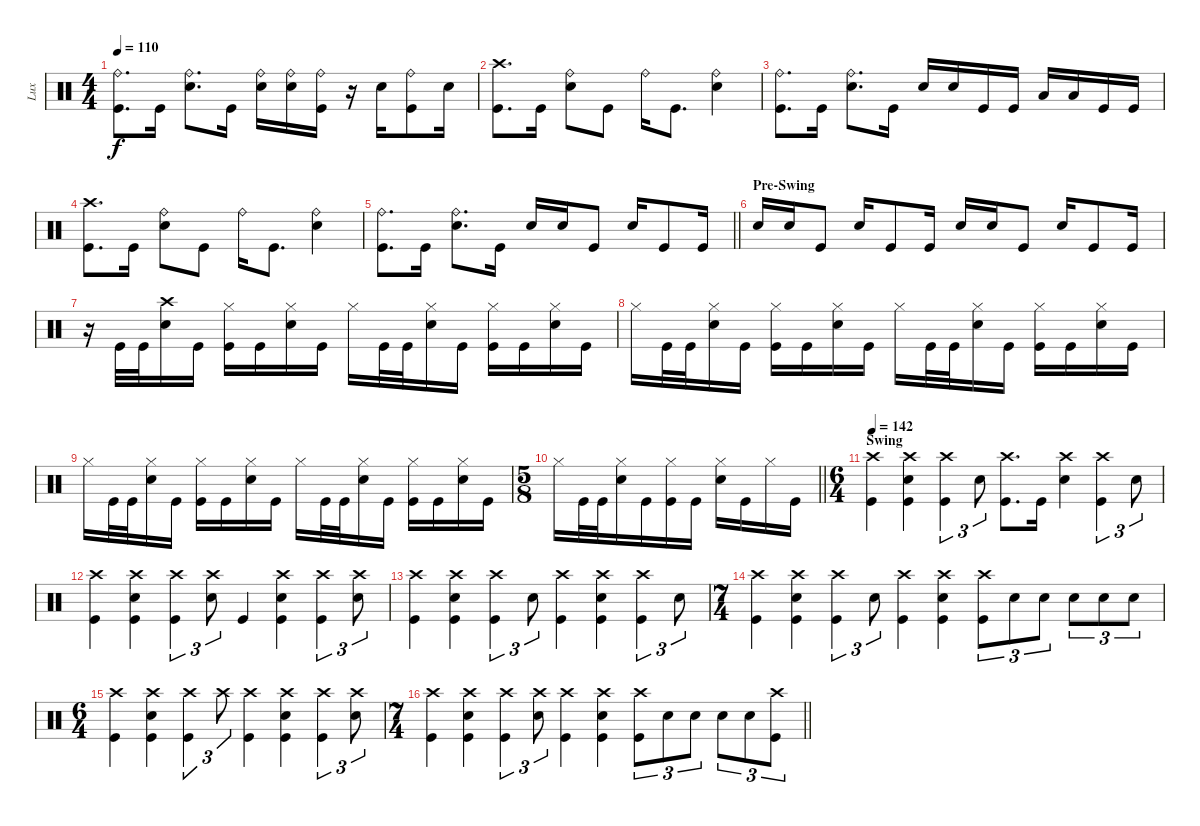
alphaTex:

\track ("Lux" "Lux") {mute instrument percussion}
\staff {score}
\articulation defaults
\ts (4 4)
\tempo 110
\clef neutral
\ks c
("Ride (bell)" "Kick (hit)").8{d dy f} "Kick (hit)".16 ("Ride (bell)" "Snare (hit) 2").8{d} "Kick (hit)".16 ("Ride (bell)" "Snare (hit) 2").16 ("Ride (bell)" "Snare (hit) 2").16 ("Ride (bell)" "Kick (hit)").16 r.16 "Snare (hit) 2".16 ("Ride (bell)" "Kick (hit)").8 "Snare (hit) 2".16 |
("Crash high (hit)" "Kick (hit)").8{d} "Kick (hit)".16 ("Ride (bell)" "Snare (hit) 2").8 "Kick (hit)".8 "Ride (bell)".16 "Kick (hit)".8{d} ("Ride (bell)" "Snare (hit) 2").4 |
("Ride (bell)" "Kick (hit)").8{d} "Kick (hit)".16 ("Ride (bell)" "Snare (hit) 2").8{d} "Kick (hit)".16 "Snare (hit) 2".16 "Snare (hit) 2".16 "Kick (hit)".16 "Kick (hit)".16 "Low Tom (hit)".16 "Low Tom (hit)".16 "Kick (hit)".16 "Kick (hit)".16 |
("Crash high (hit)" "Kick (hit)").8{d} "Kick (hit)".16 ("Ride (bell)" "Snare (hit) 2").8 "Kick (hit)".8 "Ride (bell)".16 "Kick (hit)".8{d} ("Ride (bell)" "Snare (hit) 2").4 |
\barLineRight lightlight
("Ride (bell)" "Kick (hit)").8{d} "Kick (hit)".16 ("Ride (bell)" "Snare (hit) 2").8{d} "Kick (hit)".16 "Snare (hit) 2".16 "Snare (hit) 2".16 "Kick (hit)".8 "Snare (hit) 2".16 "Kick (hit)".8 "Kick (hit)".16 |
\section ("" "Pre-Swing")
"Snare (hit) 2".16 "Snare (hit) 2".16 "Kick (hit)".8 "Snare (hit) 2".16 "Kick (hit)".8 "Kick (hit)".16 "Snare (hit) 2".16 "Snare (hit) 2".16 "Kick (hit)".8 "Snare (hit) 2".16 "Kick (hit)".8 "Kick (hit)".16 |
r.16 "Kick (hit)".32 "Kick (hit)".32 ("Crash high (hit)" "Snare (hit) 2").16 "Kick (hit)".16 ("Hi-Hat (closed)" "Kick (hit)").16 "Kick (hit)".16 ("Hi-Hat (closed)" "Snare (hit) 2").16 "Kick (hit)".16 "Hi-Hat (closed)".16 "Kick (hit)".32 "Kick (hit)".32 ("Hi-Hat (closed)" "Snare (hit) 2").16 "Kick (hit)".16 ("Hi-Hat (closed)" "Kick (hit)").16 "Kick (hit)".16 ("Hi-Hat (closed)" "Snare (hit) 2").16 "Kick (hit)".16 |
"Hi-Hat (closed)".16 "Kick (hit)".32 "Kick (hit)".32 ("Hi-Hat (closed)" "Snare (hit) 2").16 "Kick (hit)".16 ("Hi-Hat (closed)" "Kick (hit)").16 "Kick (hit)".16 ("Hi-Hat (closed)" "Snare (hit) 2").16 "Kick (hit)".16 "Hi-Hat (closed)".16 "Kick (hit)".32 "Kick (hit)".32 ("Hi-Hat (closed)" "Snare (hit) 2").16 "Kick (hit)".16 ("Hi-Hat (closed)" "Kick (hit)").16 "Kick (hit)".16 ("Hi-Hat (closed)" "Snare (hit) 2").16 "Kick (hit)".16 |
"Hi-Hat (closed)".16 "Kick (hit)".32 "Kick (hit)".32 ("Hi-Hat (closed)" "Snare (hit) 2").16 "Kick (hit)".16 ("Hi-Hat (closed)" "Kick (hit)").16 "Kick (hit)".16 ("Hi-Hat (closed)" "Snare (hit) 2").16 "Kick (hit)".16 "Hi-Hat (closed)".16 "Kick (hit)".32 "Kick (hit)".32 ("Hi-Hat (closed)" "Snare (hit) 2").16 "Kick (hit)".16 ("Hi-Hat (closed)" "Kick (hit)").16 "Kick (hit)".16 ("Hi-Hat (closed)" "Snare (hit) 2").16 "Kick (hit)".16 |
\ts (5 8)
\barLineRight lightlight "Hi-Hat (closed)".16 "Kick (hit)".32 "Kick (hit)".32
("Hi-Hat (closed)" "Snare (hit) 2").16 "Kick (hit)".16 ("Hi-Hat (closed)" "Kick (hit)").16 "Kick (hit)".16 ("Hi-Hat (closed)" "Snare (hit) 2").16 "Kick (hit)".16 "Hi-Hat (closed)".16 "Kick (hit)".16 |
\ts (6 4)
\section ("" "Swing")
\tempo 142
("Crash high (hit)" "Kick (hit)").4 ("Crash high (hit)" "Snare (hit) 2" "Kick (hit)").4 ("Crash high (hit)" "Kick (hit)").4{tu (3 2)} "Snare (hit) 2".8{tu (3 2)} ("Crash high (hit)" "Kick (hit)").8{d} "Kick (hit)".16 ("Crash high (hit)" "Snare (hit) 2").4 ("Crash high (hit)" "Kick (hit)").4{tu (3 2)} "Snare (hit) 2".8{tu (3 2)} |
("Crash high (hit)" "Kick (hit)").4 ("Crash high (hit)" "Snare (hit) 2" "Kick (hit)").4 ("Crash high (hit)" "Kick (hit)").4{tu (3 2)} ("Crash high (hit)" "Snare (hit) 2").8{tu (3 2)} "Kick (hit)".4 ("Crash high (hit)" "Snare (hit) 2" "Kick (hit)").4 ("Crash high (hit)" "Kick (hit)").4{tu (3 2)} ("Crash high (hit)" "Snare (hit) 2").8{tu (3 2)} |
("Crash high (hit)" "Kick (hit)").4 ("Crash high (hit)" "Snare (hit) 2" "Kick (hit)").4 ("Crash high (hit)" "Kick (hit)").4{tu (3 2)} "Snare (hit) 2".8{tu (3 2)} ("Crash high (hit)" "Kick (hit)").4 ("Crash high (hit)" "Snare (hit) 2" "Kick (hit)").4 ("Crash high (hit)" "Kick (hit)").4{tu (3 2)} "Snare (hit) 2".8{tu (3 2)} |
\ts (7 4)
("Crash high (hit)" "Kick (hit)").4 ("Crash high (hit)" "Snare (hit) 2" "Kick (hit)").4 ("Crash high (hit)" "Kick (hit)").4{tu (3 2)} "Snare (hit) 2".8{tu (3 2)} ("Crash high (hit)" "Kick (hit)").4 ("Crash high (hit)" "Snare (hit) 2" "Kick (hit)").4 ("Crash high (hit)" "Kick (hit)").8{tu (3 2)} "Snare (hit) 2".8{tu (3 2)} "Snare (hit) 2".8{tu (3 2)} "Snare (hit) 2".8{tu (3 2)} "Snare (hit) 2".8{tu (3 2)} "Snare (hit) 2".8{tu (3 2)} |
\ts (6 4)
("Crash high (hit)" "Kick (hit)").4 ("Crash high (hit)" "Snare (hit) 2" "Kick (hit)").4 ("Crash high (hit)" "Kick (hit)").4{tu (3 2)} "Crash high (hit)".8{tu (3 2)} ("Crash high (hit)" "Kick (hit)").4 ("Crash high (hit)" "Snare (hit) 2" "Kick (hit)").4 ("Crash high (hit)" "Kick (hit)").4{tu (3 2)} ("Crash high (hit)" "Snare (hit) 2").8{tu (3 2)} |
\ts (7 4)
\barLineRight lightlight
("Crash high (hit)" "Kick (hit)").4 ("Crash high (hit)" "Snare (hit) 2" "Kick (hit)").4 ("Crash high (hit)" "Kick (hit)").4{tu (3 2)} ("Crash high (hit)" "Snare (hit) 2").8{tu (3 2)} ("Crash high (hit)" "Kick (hit)").4 ("Crash high (hit)" "Snare (hit) 2" "Kick (hit)").4 ("Crash high (hit)" "Kick (hit)").8{tu (3 2)} "Snare (hit) 2".8{tu (3 2)} "Snare (hit) 2".8{tu (3 2)} "Snare (hit) 2".8{tu (3 2)} "Snare (hit) 2".8{tu (3 2)} ("Crash high (hit)" "Kick (hit)").8{tu (3 2)}
